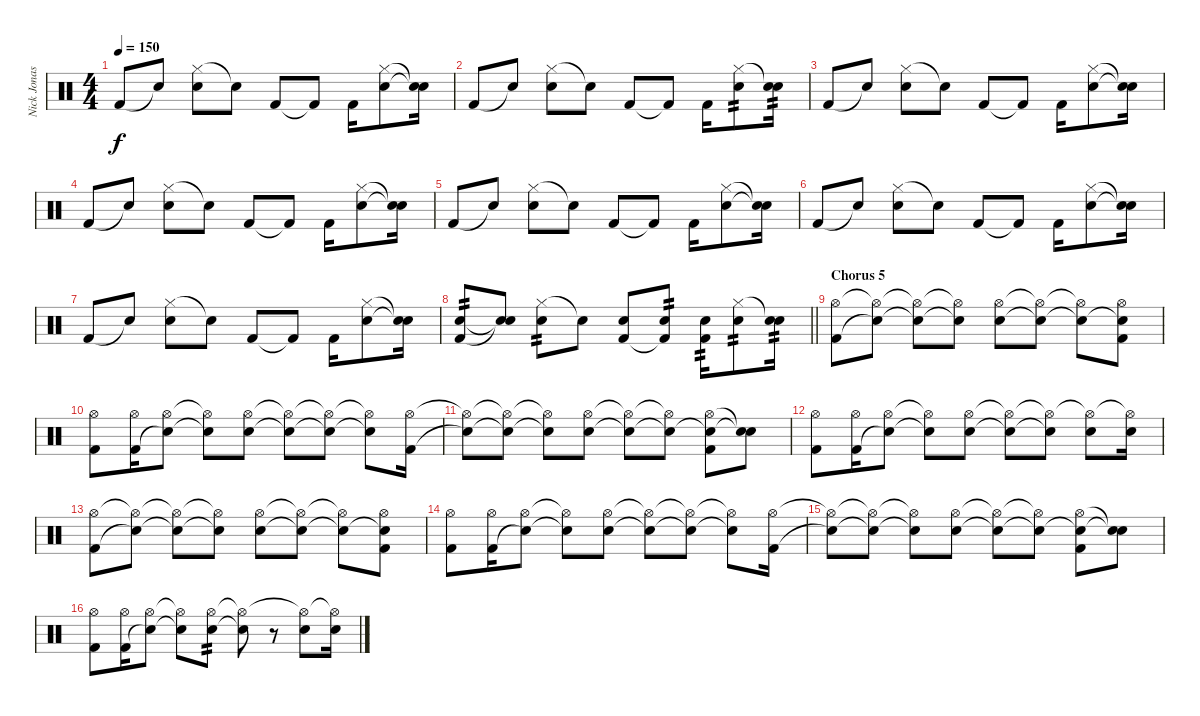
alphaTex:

\track ("Nick Jonas Drums" "Nick Jonas") {instrument percussion}
\staff {score}
\articulation defaults
\ts (4 4)
\tempo 150
\clef neutral
\ks c "Kick (hit) 2".8{dy f} "Snare (hit)"{t}.8
("Hi-Hat (closed)" "Electric Snare (hit)").8 "Snare (hit)"{t}.8 "Kick (hit) 2".8 "Kick (hit) 2"{t}.8 "Kick (hit) 2".16 ("Hi-Hat (closed)" "Electric Snare (hit)").8 ("Snare (hit)"{t} "Snare (hit)"{t}).16 |
"Kick (hit) 2".8 "Snare (hit)"{t}.8 ("Hi-Hat (closed)" "Electric Snare (hit)").8 "Snare (hit)"{t}.8 "Kick (hit) 2".8 "Kick (hit) 2"{t}.8 "Kick (hit) 2".16 ("Hi-Hat (closed)" "Electric Snare (hit)").8{tp 2} ("Snare (hit)"{t} "Electric Snare (hit)").16{tp 2} |
"Kick (hit) 2".8 "Snare (hit)"{t}.8 ("Hi-Hat (closed)" "Electric Snare (hit)").8 "Snare (hit)"{t}.8 "Kick (hit) 2".8 "Kick (hit) 2"{t}.8 "Kick (hit) 2".16 ("Hi-Hat (closed)" "Electric Snare (hit)").8 ("Snare (hit)"{t} "Snare (hit)"{t}).16 |
"Kick (hit) 2".8 "Snare (hit)"{t}.8 ("Hi-Hat (closed)" "Electric Snare (hit)").8 "Snare (hit)"{t}.8 "Kick (hit) 2".8 "Kick (hit) 2"{t}.8 "Kick (hit) 2".16 ("Hi-Hat (closed)" "Electric Snare (hit)").8 ("Snare (hit)"{t} "Snare (hit)"{t}).16 |
"Kick (hit) 2".8 "Snare (hit)"{t}.8 ("Hi-Hat (closed)" "Electric Snare (hit)").8 "Snare (hit)"{t}.8 "Kick (hit) 2".8 "Kick (hit) 2"{t}.8 "Kick (hit) 2".16 ("Hi-Hat (closed)" "Electric Snare (hit)").8 ("Snare (hit)"{t} "Snare (hit)"{t}).16 |
"Kick (hit) 2".8 "Snare (hit)"{t}.8 ("Hi-Hat (closed)" "Electric Snare (hit)").8 "Snare (hit)"{t}.8 "Kick (hit) 2".8 "Kick (hit) 2"{t}.8 "Kick (hit) 2".16 ("Hi-Hat (closed)" "Electric Snare (hit)").8 ("Snare (hit)"{t} "Snare (hit)"{t}).16 |
"Kick (hit) 2".8 "Snare (hit)"{t}.8 ("Hi-Hat (closed)" "Electric Snare (hit)").8 "Snare (hit)"{t}.8 "Kick (hit) 2".8 "Kick (hit) 2"{t}.8 "Kick (hit) 2".16 ("Hi-Hat (closed)" "Electric Snare (hit)").8 ("Snare (hit)"{t} "Snare (hit)"{t}).16 |
\barLineRight lightlight
("Electric Snare (hit)" "Kick (hit) 2").8{tp 2} ("Snare (hit)"{t} "Snare (hit)"{t}).8 ("Hi-Hat (closed)" "Electric Snare (hit)").8{tp 2} "Snare (hit)"{t}.8 ("Electric Snare (hit)" "Kick (hit) 2").8 ("Electric Snare (hit)" "Kick (hit) 2"{t}).8{tp 2} ("Electric Snare (hit)" "Kick (hit) 2").16{tp 2} ("Hi-Hat (closed)" "Electric Snare (hit)").8{tp 2} ("Snare (hit)"{t} "Electric Snare (hit)").16{tp 2} |
\section ("" "Chorus 5")
("Hi-Hat (open)" "Kick (hit) 2").8 ("Hi-Hat (open)"{t} "Snare (hit)"{t}).8 ("Hi-Hat (open)"{t} "Snare (hit)"{t}).8 ("Hi-Hat (open)"{t} "Snare (hit)"{t}).8 ("Hi-Hat (open)" "Electric Snare (hit)").8 ("Hi-Hat (open)"{t} "Snare (hit)"{t}).8 ("Hi-Hat (open)"{t} "Snare (hit)"{t}).8 ("Hi-Hat (open)" "Snare (hit)"{t} "Kick (hit) 2").8 |
("Hi-Hat (open)" "Kick (hit) 2").8 ("Hi-Hat (open)" "Kick (hit) 2").16 ("Hi-Hat (open)" "Snare (hit)"{t}).8 ("Hi-Hat (open)"{t} "Snare (hit)"{t}).8 ("Hi-Hat (open)" "Electric Snare (hit)").8 ("Hi-Hat (open)"{t} "Snare (hit)"{t}).8 ("Hi-Hat (open)"{t} "Snare (hit)"{t}).8 ("Hi-Hat (open)"{t} "Snare (hit)"{t}).8 ("Hi-Hat (open)" "Kick (hit) 2").16 |
("Hi-Hat (open)"{t} "Snare (hit)"{t}).8 ("Hi-Hat (open)"{t} "Snare (hit)"{t}).8 ("Hi-Hat (open)"{t} "Snare (hit)"{t}).8 ("Hi-Hat (open)" "Electric Snare (hit)").8 ("Hi-Hat (open)"{t} "Snare (hit)"{t}).8 ("Hi-Hat (open)"{t} "Snare (hit)"{t}).8 ("Hi-Hat (open)" "Snare (hit)"{t} "Kick (hit) 2").8 ("Snare (hit)"{t} "Snare (hit)"{t}).8 |
("Hi-Hat (open)" "Kick (hit) 2").8 ("Hi-Hat (open)" "Kick (hit) 2").16 ("Hi-Hat (open)" "Snare (hit)"{t}).8 ("Hi-Hat (open)"{t} "Snare (hit)"{t}).8 ("Hi-Hat (open)" "Electric Snare (hit)").8 ("Hi-Hat (open)"{t} "Snare (hit)"{t}).8 ("Hi-Hat (open)"{t} "Snare (hit)"{t}).8 ("Hi-Hat (open)"{t} "Electric Snare (hit)").8 ("Hi-Hat (open)"{t} "Electric Snare (hit)").16 |
("Hi-Hat (open)" "Kick (hit) 2").8 ("Hi-Hat (open)"{t} "Snare (hit)"{t}).8 ("Hi-Hat (open)"{t} "Snare (hit)"{t}).8 ("Hi-Hat (open)"{t} "Snare (hit)"{t}).8 ("Hi-Hat (open)" "Electric Snare (hit)").8 ("Hi-Hat (open)"{t} "Snare (hit)"{t}).8 ("Hi-Hat (open)"{t} "Snare (hit)"{t}).8 ("Hi-Hat (open)" "Snare (hit)"{t} "Kick (hit) 2").8 |
("Hi-Hat (open)" "Kick (hit) 2").8 ("Hi-Hat (open)" "Kick (hit) 2").16 ("Hi-Hat (open)" "Snare (hit)"{t}).8 ("Hi-Hat (open)"{t} "Snare (hit)"{t}).8 ("Hi-Hat (open)" "Electric Snare (hit)").8 ("Hi-Hat (open)"{t} "Snare (hit)"{t}).8 ("Hi-Hat (open)"{t} "Snare (hit)"{t}).8 ("Hi-Hat (open)"{t} "Snare (hit)"{t}).8 ("Hi-Hat (open)" "Kick (hit) 2").16 |
("Hi-Hat (open)"{t} "Snare (hit)"{t}).8 ("Hi-Hat (open)"{t} "Snare (hit)"{t}).8 ("Hi-Hat (open)"{t} "Snare (hit)"{t}).8 ("Hi-Hat (open)" "Electric Snare (hit)").8 ("Hi-Hat (open)"{t} "Snare (hit)"{t}).8 ("Hi-Hat (open)"{t} "Snare (hit)"{t}).8 ("Hi-Hat (open)" "Snare (hit)"{t} "Kick (hit) 2").8 ("Snare (hit)"{t} "Snare (hit)"{t}).8 |
("Hi-Hat (open)" "Kick (hit) 2").8 ("Hi-Hat (open)" "Kick (hit) 2").16 ("Hi-Hat (open)" "Snare (hit)"{t}).8 ("Hi-Hat (open)"{t} "Snare (hit)"{t}).8 ("Hi-Hat (open)" "Electric Snare (hit)").8{tp 2} ("Hi-Hat (open)"{t} "Snare (hit)"{t}).8 r.8 ("Hi-Hat (open)"{t} "Electric Snare (hit)").8 ("Hi-Hat (open)"{t} "Electric Snare (hit)").16
